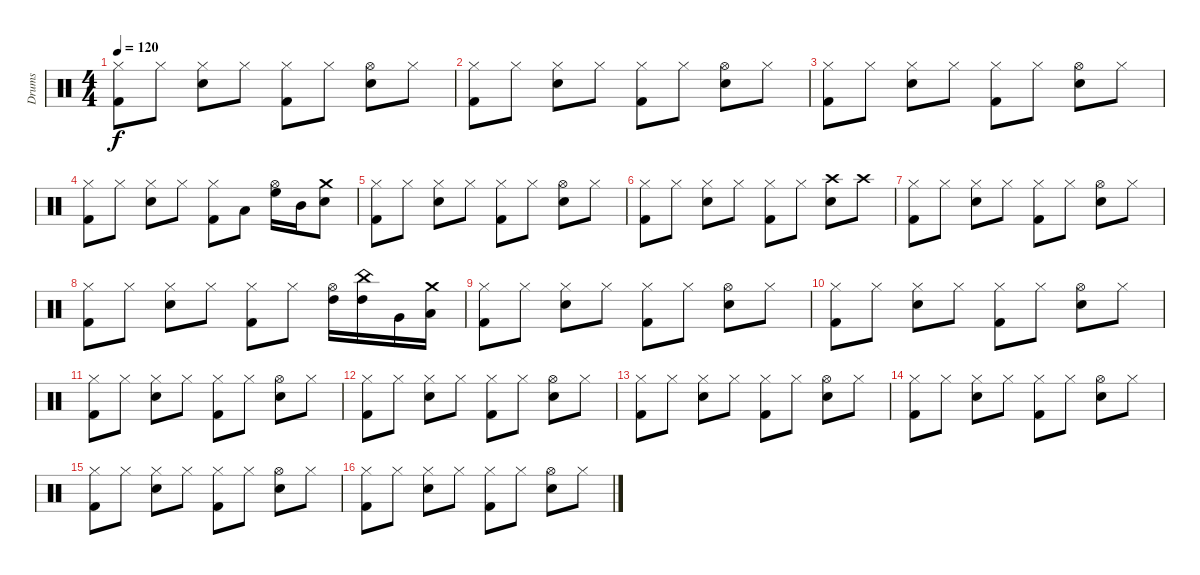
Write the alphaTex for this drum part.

\track ("Drums" "Drums") {instrument percussion}
\staff {score}
\articulation defaults
\ts (4 4)
\tempo 120
\clef neutral
\ks c
("Kick (hit) 2" "Hi-Hat (closed)").8{dy f} "Hi-Hat (closed)".8 ("Snare (hit) 2" "Hi-Hat (closed)").8 "Hi-Hat (closed)".8 ("Kick (hit) 2" "Hi-Hat (closed)").8 "Hi-Hat (closed)".8 ("Snare (hit) 2" "Hi-Hat (open)").8 "Hi-Hat (closed)".8 |
("Kick (hit) 2" "Hi-Hat (closed)").8 "Hi-Hat (closed)".8 ("Snare (hit) 2" "Hi-Hat (closed)").8 "Hi-Hat (closed)".8 ("Kick (hit) 2" "Hi-Hat (closed)").8 "Hi-Hat (closed)".8 ("Snare (hit) 2" "Hi-Hat (open)").8 "Hi-Hat (closed)".8 |
("Kick (hit) 2" "Hi-Hat (closed)").8 "Hi-Hat (closed)".8 ("Snare (hit) 2" "Hi-Hat (closed)").8 "Hi-Hat (closed)".8 ("Kick (hit) 2" "Hi-Hat (closed)").8 "Hi-Hat (closed)".8 ("Snare (hit) 2" "Hi-Hat (open)").8 "Hi-Hat (closed)".8 |
("Kick (hit) 2" "Hi-Hat (closed)").8 "Hi-Hat (closed)".8 ("Snare (hit) 2" "Hi-Hat (closed)").8 "Hi-Hat (closed)".8 ("Kick (hit) 2" "Hi-Hat (closed)").8 "Low Tom (hit)".8 ("High Floor Tom (hit)" "Hi-Hat (open)").16 "Mid Tom (hit)".16 ("Crash medium (hit)" "Snare (hit) 2").8 |
("Kick (hit) 2" "Hi-Hat (closed)").8 "Hi-Hat (closed)".8 ("Snare (hit) 2" "Hi-Hat (closed)").8 "Hi-Hat (closed)".8 ("Kick (hit) 2" "Hi-Hat (closed)").8 "Hi-Hat (closed)".8 ("Snare (hit) 2" "Hi-Hat (open)").8 "Hi-Hat (closed)".8 |
("Kick (hit) 2" "Hi-Hat (closed)").8 "Hi-Hat (closed)".8 ("Snare (hit) 2" "Hi-Hat (closed)").8 "Hi-Hat (closed)".8 ("Kick (hit) 2" "Hi-Hat (closed)").8 "Hi-Hat (closed)".8 ("Snare (hit) 2" "Crash high (hit)").8 "Crash high (hit)".8 |
("Kick (hit) 2" "Hi-Hat (closed)").8 "Hi-Hat (closed)".8 ("Snare (hit) 2" "Hi-Hat (closed)").8 "Hi-Hat (closed)".8 ("Kick (hit) 2" "Hi-Hat (closed)").8 "Hi-Hat (closed)".8 ("Snare (hit) 2" "Hi-Hat (open)").8 "Hi-Hat (closed)".8 |
("Kick (hit) 2" "Hi-Hat (closed)").8 "Hi-Hat (closed)".8 ("Snare (hit) 2" "Hi-Hat (closed)").8 "Hi-Hat (closed)".8 ("Kick (hit) 2" "Hi-Hat (closed)").8 "Hi-Hat (closed)".8 ("High Tom (hit)" "Hi-Hat (open)").16 ("High Tom (hit)" "China (hit)").16 "Very Low Tom (hit)".16 ("Low Tom (hit)" "Crash medium (hit)").16 |
("Kick (hit) 2" "Hi-Hat (closed)").8 "Hi-Hat (closed)".8 ("Snare (hit) 2" "Hi-Hat (closed)").8 "Hi-Hat (closed)".8 ("Kick (hit) 2" "Hi-Hat (closed)").8 "Hi-Hat (closed)".8 ("Snare (hit) 2" "Hi-Hat (open)").8 "Hi-Hat (closed)".8 |
("Kick (hit) 2" "Hi-Hat (closed)").8 "Hi-Hat (closed)".8 ("Snare (hit) 2" "Hi-Hat (closed)").8 "Hi-Hat (closed)".8 ("Kick (hit) 2" "Hi-Hat (closed)").8 "Hi-Hat (closed)".8 ("Snare (hit) 2" "Hi-Hat (open)").8 "Hi-Hat (closed)".8 |
("Kick (hit) 2" "Hi-Hat (closed)").8 "Hi-Hat (closed)".8 ("Snare (hit) 2" "Hi-Hat (closed)").8 "Hi-Hat (closed)".8 ("Kick (hit) 2" "Hi-Hat (closed)").8 "Hi-Hat (closed)".8 ("Snare (hit) 2" "Hi-Hat (open)").8 "Hi-Hat (closed)".8 |
("Kick (hit) 2" "Hi-Hat (closed)").8 "Hi-Hat (closed)".8 ("Snare (hit) 2" "Hi-Hat (closed)").8 "Hi-Hat (closed)".8 ("Kick (hit) 2" "Hi-Hat (closed)").8 "Hi-Hat (closed)".8 ("Snare (hit) 2" "Hi-Hat (open)").8 "Hi-Hat (closed)".8 |
("Kick (hit) 2" "Hi-Hat (closed)").8 "Hi-Hat (closed)".8 ("Snare (hit) 2" "Hi-Hat (closed)").8 "Hi-Hat (closed)".8 ("Kick (hit) 2" "Hi-Hat (closed)").8 "Hi-Hat (closed)".8 ("Snare (hit) 2" "Hi-Hat (open)").8 "Hi-Hat (closed)".8 |
("Kick (hit) 2" "Hi-Hat (closed)").8 "Hi-Hat (closed)".8 ("Snare (hit) 2" "Hi-Hat (closed)").8 "Hi-Hat (closed)".8 ("Kick (hit) 2" "Hi-Hat (closed)").8 "Hi-Hat (closed)".8 ("Snare (hit) 2" "Hi-Hat (open)").8 "Hi-Hat (closed)".8 |
("Kick (hit) 2" "Hi-Hat (closed)").8 "Hi-Hat (closed)".8 ("Snare (hit) 2" "Hi-Hat (closed)").8 "Hi-Hat (closed)".8 ("Kick (hit) 2" "Hi-Hat (closed)").8 "Hi-Hat (closed)".8 ("Snare (hit) 2" "Hi-Hat (open)").8 "Hi-Hat (closed)".8 |
("Kick (hit) 2" "Hi-Hat (closed)").8 "Hi-Hat (closed)".8 ("Snare (hit) 2" "Hi-Hat (closed)").8 "Hi-Hat (closed)".8 ("Kick (hit) 2" "Hi-Hat (closed)").8 "Hi-Hat (closed)".8 ("Snare (hit) 2" "Hi-Hat (open)").8 "Hi-Hat (closed)".8
